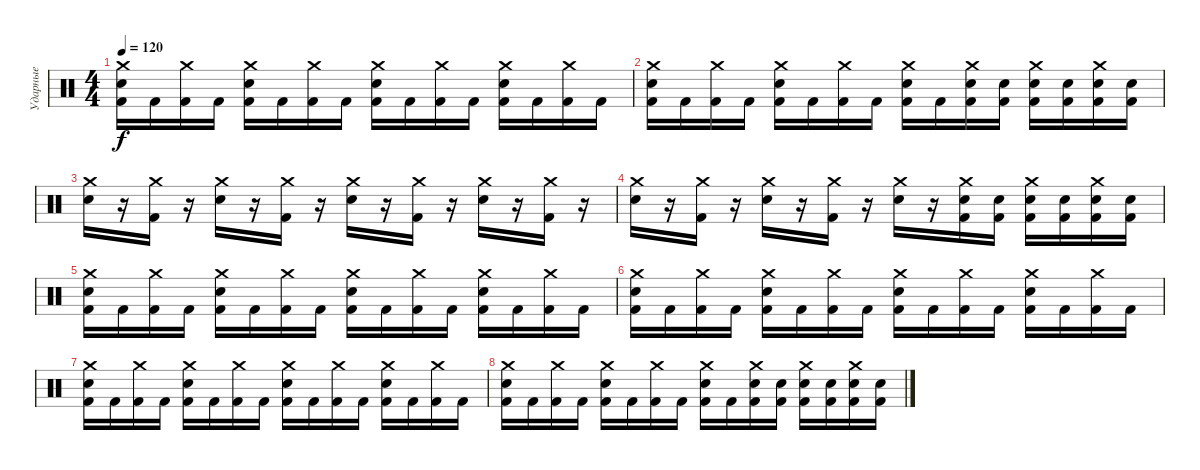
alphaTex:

\track ("Ударные" "Ударные") {instrument percussion}
\staff
\articulation defaults
\ts (4 4)
\tempo 120
\clef neutral
\ks c
("Crash medium (hit)" "Kick (hit) 2" "Electric Snare (hit)").16{dy f} "Kick (hit) 2".16 ("Crash medium (hit)" "Kick (hit) 2").16 "Kick (hit) 2".16 ("Crash medium (hit)" "Kick (hit) 2" "Electric Snare (hit)").16 "Kick (hit) 2".16 ("Crash medium (hit)" "Kick (hit) 2").16 "Kick (hit) 2".16 ("Crash medium (hit)" "Kick (hit) 2" "Electric Snare (hit)").16 "Kick (hit) 2".16 ("Crash medium (hit)" "Kick (hit) 2").16 "Kick (hit) 2".16 ("Crash medium (hit)" "Kick (hit) 2" "Electric Snare (hit)").16 "Kick (hit) 2".16 ("Crash medium (hit)" "Kick (hit) 2").16 "Kick (hit) 2".16 |
("Crash medium (hit)" "Kick (hit) 2" "Electric Snare (hit)").16 "Kick (hit) 2".16 ("Crash medium (hit)" "Kick (hit) 2").16 "Kick (hit) 2".16 ("Crash medium (hit)" "Kick (hit) 2" "Electric Snare (hit)").16 "Kick (hit) 2".16 ("Crash medium (hit)" "Kick (hit) 2").16 "Kick (hit) 2".16 ("Crash medium (hit)" "Kick (hit) 2" "Electric Snare (hit)").16 "Kick (hit) 2".16 ("Crash medium (hit)" "Kick (hit) 2" "Electric Snare (hit)").16 ("Kick (hit) 2" "Electric Snare (hit)").16 ("Crash medium (hit)" "Kick (hit) 2" "Electric Snare (hit)").16 ("Kick (hit) 2" "Electric Snare (hit)").16 ("Crash medium (hit)" "Kick (hit) 2" "Electric Snare (hit)").16 ("Kick (hit) 2" "Electric Snare (hit)").16 |
("Crash medium (hit)" "Electric Snare (hit)").16 r.16 ("Crash medium (hit)" "Kick (hit) 2").16 r.16 ("Crash medium (hit)" "Electric Snare (hit)").16 r.16 ("Crash medium (hit)" "Kick (hit) 2").16 r.16 ("Crash medium (hit)" "Electric Snare (hit)").16 r.16 ("Crash medium (hit)" "Kick (hit) 2").16 r.16 ("Crash medium (hit)" "Electric Snare (hit)").16 r.16 ("Crash medium (hit)" "Kick (hit) 2").16 r.16 |
("Crash medium (hit)" "Electric Snare (hit)").16 r.16 ("Crash medium (hit)" "Kick (hit) 2").16 r.16 ("Crash medium (hit)" "Electric Snare (hit)").16 r.16 ("Crash medium (hit)" "Kick (hit) 2").16 r.16 ("Crash medium (hit)" "Electric Snare (hit)").16 r.16 ("Crash medium (hit)" "Kick (hit) 2" "Electric Snare (hit)").16 ("Kick (hit) 2" "Electric Snare (hit)").16 ("Crash medium (hit)" "Kick (hit) 2" "Electric Snare (hit)").16 ("Kick (hit) 2" "Electric Snare (hit)").16 ("Crash medium (hit)" "Kick (hit) 2" "Electric Snare (hit)").16 ("Kick (hit) 2" "Electric Snare (hit)").16 |
("Crash medium (hit)" "Kick (hit) 2" "Electric Snare (hit)").16 "Kick (hit) 2".16 ("Crash medium (hit)" "Kick (hit) 2").16 "Kick (hit) 2".16 ("Crash medium (hit)" "Kick (hit) 2" "Electric Snare (hit)").16 "Kick (hit) 2".16 ("Crash medium (hit)" "Kick (hit) 2").16 "Kick (hit) 2".16 ("Crash medium (hit)" "Kick (hit) 2" "Electric Snare (hit)").16 "Kick (hit) 2".16 ("Crash medium (hit)" "Kick (hit) 2").16 "Kick (hit) 2".16 ("Crash medium (hit)" "Kick (hit) 2" "Electric Snare (hit)").16 "Kick (hit) 2".16 ("Crash medium (hit)" "Kick (hit) 2").16 "Kick (hit) 2".16 |
("Crash medium (hit)" "Kick (hit) 2" "Electric Snare (hit)").16 "Kick (hit) 2".16 ("Crash medium (hit)" "Kick (hit) 2").16 "Kick (hit) 2".16 ("Crash medium (hit)" "Kick (hit) 2" "Electric Snare (hit)").16 "Kick (hit) 2".16 ("Crash medium (hit)" "Kick (hit) 2").16 "Kick (hit) 2".16 ("Crash medium (hit)" "Kick (hit) 2" "Electric Snare (hit)").16 "Kick (hit) 2".16 ("Crash medium (hit)" "Kick (hit) 2").16 "Kick (hit) 2".16 ("Crash medium (hit)" "Kick (hit) 2" "Electric Snare (hit)").16 "Kick (hit) 2".16 ("Crash medium (hit)" "Kick (hit) 2").16 "Kick (hit) 2".16 |
("Crash medium (hit)" "Kick (hit) 2" "Electric Snare (hit)").16 "Kick (hit) 2".16 ("Crash medium (hit)" "Kick (hit) 2").16 "Kick (hit) 2".16 ("Crash medium (hit)" "Kick (hit) 2" "Electric Snare (hit)").16 "Kick (hit) 2".16 ("Crash medium (hit)" "Kick (hit) 2").16 "Kick (hit) 2".16 ("Crash medium (hit)" "Kick (hit) 2" "Electric Snare (hit)").16 "Kick (hit) 2".16 ("Crash medium (hit)" "Kick (hit) 2").16 "Kick (hit) 2".16 ("Crash medium (hit)" "Kick (hit) 2" "Electric Snare (hit)").16 "Kick (hit) 2".16 ("Crash medium (hit)" "Kick (hit) 2").16 "Kick (hit) 2".16 |
("Crash medium (hit)" "Kick (hit) 2" "Electric Snare (hit)").16 "Kick (hit) 2".16 ("Crash medium (hit)" "Kick (hit) 2").16 "Kick (hit) 2".16 ("Crash medium (hit)" "Kick (hit) 2" "Electric Snare (hit)").16 "Kick (hit) 2".16 ("Crash medium (hit)" "Kick (hit) 2").16 "Kick (hit) 2".16 ("Crash medium (hit)" "Kick (hit) 2" "Electric Snare (hit)").16 "Kick (hit) 2".16 ("Crash medium (hit)" "Kick (hit) 2" "Electric Snare (hit)").16 ("Kick (hit) 2" "Electric Snare (hit)").16 ("Crash medium (hit)" "Kick (hit) 2" "Electric Snare (hit)").16 ("Kick (hit) 2" "Electric Snare (hit)").16 ("Crash medium (hit)" "Kick (hit) 2" "Electric Snare (hit)").16 ("Kick (hit) 2" "Electric Snare (hit)").16
